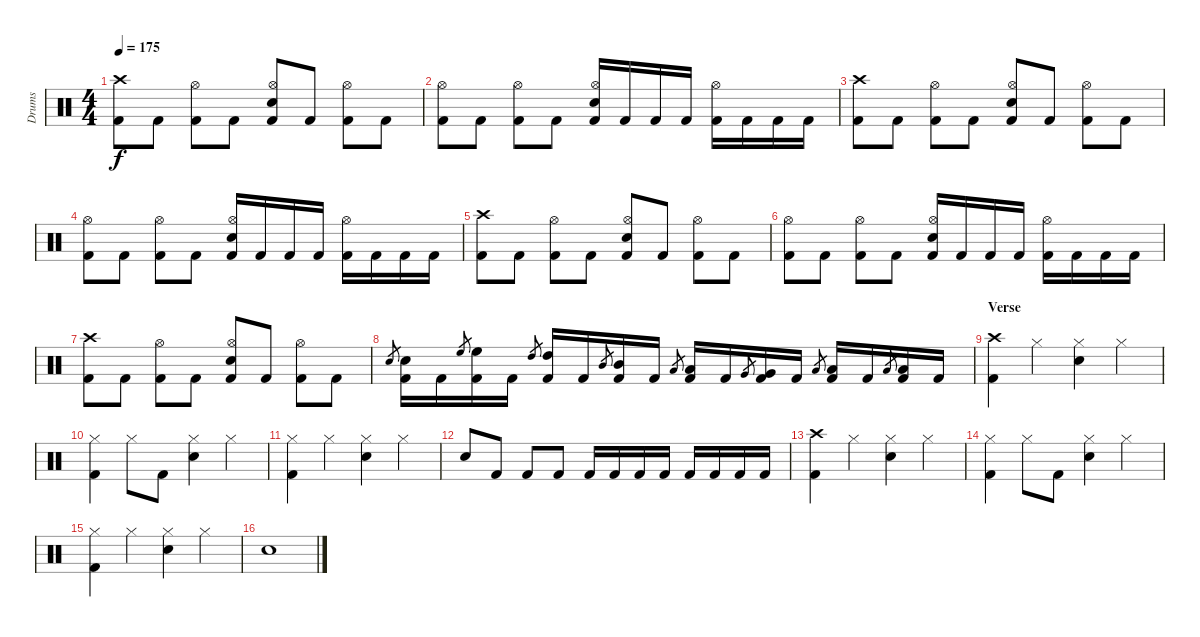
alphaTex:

\track ("Drums" "Drums") {instrument percussion}
\staff {score}
\articulation defaults
\ts (4 4)
\tempo 175
\clef neutral
\ks c
("Crash high (hit)" "Kick (hit) 2").8{dy f} "Kick (hit) 2".8 ("Hi-Hat (open)" "Kick (hit) 2").8 "Kick (hit) 2".8 ("Hi-Hat (open)" "Electric Snare (hit)" "Kick (hit) 2").8 "Kick (hit) 2".8 ("Hi-Hat (open)" "Kick (hit) 2").8 "Kick (hit) 2".8 |
("Hi-Hat (open)" "Kick (hit) 2").8 "Kick (hit) 2".8 ("Hi-Hat (open)" "Kick (hit) 2").8 "Kick (hit) 2".8 ("Hi-Hat (open)" "Electric Snare (hit)" "Kick (hit) 2").16 "Kick (hit) 2".16 "Kick (hit) 2".16 "Kick (hit) 2".16 ("Hi-Hat (open)" "Kick (hit) 2").16 "Kick (hit) 2".16 "Kick (hit) 2".16 "Kick (hit) 2".16 |
("Crash high (hit)" "Kick (hit) 2").8 "Kick (hit) 2".8 ("Hi-Hat (open)" "Kick (hit) 2").8 "Kick (hit) 2".8 ("Hi-Hat (open)" "Electric Snare (hit)" "Kick (hit) 2").8 "Kick (hit) 2".8 ("Hi-Hat (open)" "Kick (hit) 2").8 "Kick (hit) 2".8 |
("Hi-Hat (open)" "Kick (hit) 2").8 "Kick (hit) 2".8 ("Hi-Hat (open)" "Kick (hit) 2").8 "Kick (hit) 2".8 ("Hi-Hat (open)" "Electric Snare (hit)" "Kick (hit) 2").16 "Kick (hit) 2".16 "Kick (hit) 2".16 "Kick (hit) 2".16 ("Hi-Hat (open)" "Kick (hit) 2").16 "Kick (hit) 2".16 "Kick (hit) 2".16 "Kick (hit) 2".16 |
("Crash high (hit)" "Kick (hit) 2").8 "Kick (hit) 2".8 ("Hi-Hat (open)" "Kick (hit) 2").8 "Kick (hit) 2".8 ("Hi-Hat (open)" "Electric Snare (hit)" "Kick (hit) 2").8 "Kick (hit) 2".8 ("Hi-Hat (open)" "Kick (hit) 2").8 "Kick (hit) 2".8 |
("Hi-Hat (open)" "Kick (hit) 2").8 "Kick (hit) 2".8 ("Hi-Hat (open)" "Kick (hit) 2").8 "Kick (hit) 2".8 ("Hi-Hat (open)" "Electric Snare (hit)" "Kick (hit) 2").16 "Kick (hit) 2".16 "Kick (hit) 2".16 "Kick (hit) 2".16 ("Hi-Hat (open)" "Kick (hit) 2").16 "Kick (hit) 2".16 "Kick (hit) 2".16 "Kick (hit) 2".16 |
("Crash high (hit)" "Kick (hit) 2").8 "Kick (hit) 2".8 ("Hi-Hat (open)" "Kick (hit) 2").8 "Kick (hit) 2".8 ("Hi-Hat (open)" "Electric Snare (hit)" "Kick (hit) 2").8 "Kick (hit) 2".8 ("Hi-Hat (open)" "Kick (hit) 2").8 "Kick (hit) 2".8 |
"Electric Snare (hit)".8{gr} ("Electric Snare (hit)" "Kick (hit) 2").16 "Kick (hit) 2".16 "High Floor Tom (hit)".8{gr} ("High Floor Tom (hit)" "Kick (hit) 2").16 "Kick (hit) 2".16 "High Tom (hit)".8{gr} ("High Tom (hit)" "Kick (hit) 2").16 "Kick (hit) 2".16 "Mid Tom (hit)".8{gr} ("Mid Tom (hit)" "Kick (hit) 2").16 "Kick (hit) 2".16 "Low Tom (hit)".8{gr} ("Low Tom (hit)" "Kick (hit) 2").16 "Kick (hit) 2".16 "Very Low Tom (hit)".8{gr} ("Very Low Tom (hit)" "Kick (hit) 2").16 "Kick (hit) 2".16 "Low Floor Tom (hit)".8{gr} ("Low Floor Tom (hit)" "Kick (hit) 2").16 "Kick (hit) 2".16 "Low Floor Tom (hit)".8{gr} ("Low Floor Tom (hit)" "Kick (hit) 2").16 "Kick (hit) 2".16 |
\section ("" "Verse")
("Crash high (hit)" "Kick (hit) 2").4 "Hi-Hat (closed)".4 ("Hi-Hat (closed)" "Electric Snare (hit)").4 "Hi-Hat (closed)".4 |
("Hi-Hat (closed)" "Kick (hit) 2").4 "Hi-Hat (closed)".8 "Kick (hit) 2".8 ("Hi-Hat (closed)" "Electric Snare (hit)").4 "Hi-Hat (closed)".4 |
("Hi-Hat (closed)" "Kick (hit) 2").4 "Hi-Hat (closed)".4 ("Hi-Hat (closed)" "Electric Snare (hit)").4 "Hi-Hat (closed)".4 |
"Electric Snare (hit)".8 "Kick (hit) 2".8 "Kick (hit) 2".8 "Kick (hit) 2".8 "Kick (hit) 2".16 "Kick (hit) 2".16 "Kick (hit) 2".16 "Kick (hit) 2".16 "Kick (hit) 2".16 "Kick (hit) 2".16 "Kick (hit) 2".16 "Kick (hit) 2".16 |
("Crash high (hit)" "Kick (hit) 2").4 "Hi-Hat (closed)".4 ("Hi-Hat (closed)" "Electric Snare (hit)").4 "Hi-Hat (closed)".4 |
("Hi-Hat (closed)" "Kick (hit) 2").4 "Hi-Hat (closed)".8 "Kick (hit) 2".8 ("Hi-Hat (closed)" "Electric Snare (hit)").4 "Hi-Hat (closed)".4 |
("Hi-Hat (closed)" "Kick (hit) 2").4 "Hi-Hat (closed)".4 ("Hi-Hat (closed)" "Electric Snare (hit)").4 "Hi-Hat (closed)".4 |
"Electric Snare (hit)".1
